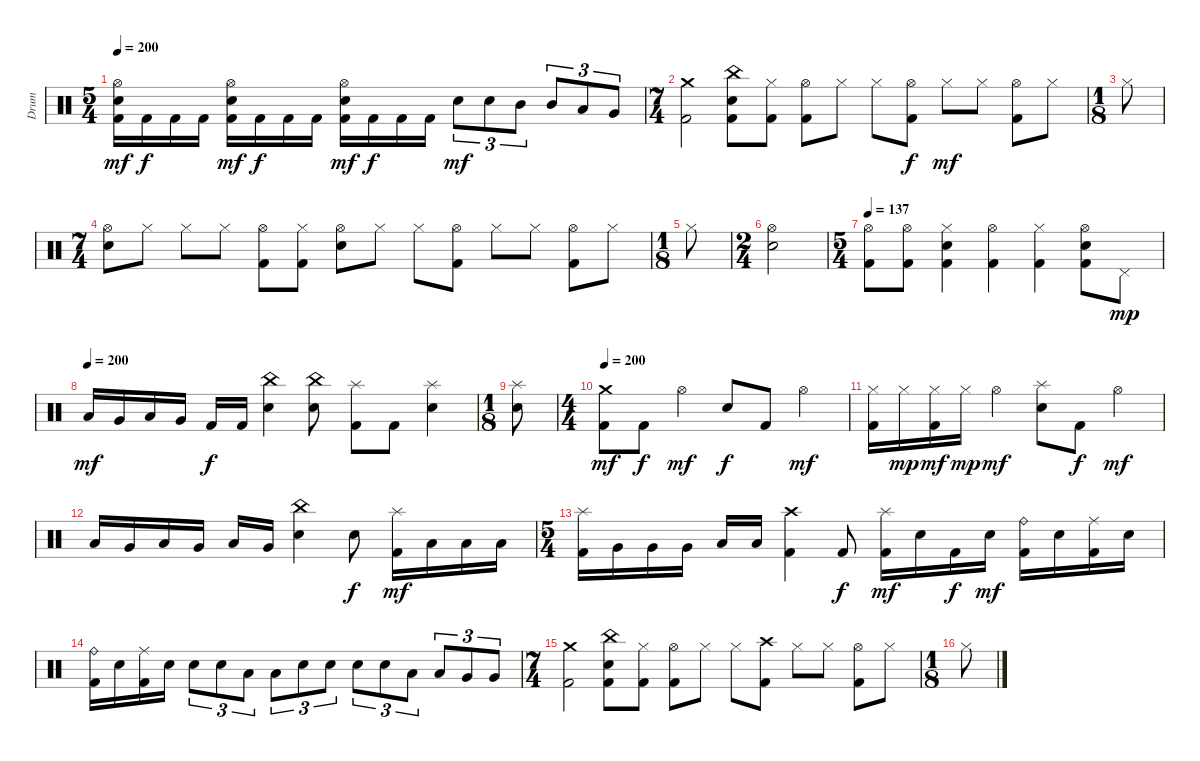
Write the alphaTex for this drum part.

\track ("Drum" "Drum") {instrument percussion}
\staff {score}
\articulation defaults
\ts (5 4)
\tempo 200
\clef neutral
\ks c
("Hi-Hat (open)" "Electric Snare (hit)" "Kick (hit) 2").16{dy mf} "Kick (hit) 2".16{dy f} "Kick (hit) 2".16 "Kick (hit) 2".16 ("Hi-Hat (open)" "Electric Snare (hit)" "Kick (hit) 2").16{dy mf} "Kick (hit) 2".16{dy f} "Kick (hit) 2".16 "Kick (hit) 2".16 ("Hi-Hat (open)" "Electric Snare (hit)" "Kick (hit) 2").16{dy mf} "Kick (hit) 2".16{dy f} "Kick (hit) 2".16 "Kick (hit) 2".16 "Electric Snare (hit)".8{tu (3 2) dy mf} "Electric Snare (hit)".8{tu (3 2)} "Mid Tom (hit)".8{tu (3 2)} "Mid Tom (hit)".8{tu (3 2)} "Low Tom (hit)".8{tu (3 2)} "Very Low Tom (hit)".8{tu (3 2)} |
\ts (7 4)
("Crash medium (hit)" "Kick (hit) 2").2 ("China (hit)" "Electric Snare (hit)" "Kick (hit) 2").8 ("Hi-Hat (closed)" "Kick (hit) 2").8 ("Hi-Hat (open)" "Kick (hit) 2").8 "Hi-Hat (closed)".8 "Hi-Hat (closed)".8 ("Hi-Hat (open)" "Kick (hit) 2").8{dy f} "Hi-Hat (closed)".8{dy mf} "Hi-Hat (closed)".8 ("Hi-Hat (open)" "Kick (hit) 2").8 "Hi-Hat (closed)".8 |
\ts (1 8)
"Hi-Hat (closed)".8 |
\ts (7 4)
("Hi-Hat (open)" "Electric Snare (hit)").8 "Hi-Hat (closed)".8 "Hi-Hat (closed)".8 "Hi-Hat (closed)".8 ("Hi-Hat (open)" "Kick (hit) 2").8 ("Hi-Hat (closed)" "Kick (hit) 2").8 ("Hi-Hat (open)" "Electric Snare (hit)").8 "Hi-Hat (closed)".8 "Hi-Hat (closed)".8 ("Hi-Hat (open)" "Kick (hit) 2").8 "Hi-Hat (closed)".8 "Hi-Hat (closed)".8 ("Hi-Hat (open)" "Kick (hit) 2").8 "Hi-Hat (closed)".8 |
\ts (1 8)
"Hi-Hat (closed)".8 |
\ts (2 4)
("Hi-Hat (open)" "Electric Snare (hit)").2 |
\ts (5 4)
\tempo 137
("Hi-Hat (open)" "Kick (hit) 2").8 ("Hi-Hat (open)" "Kick (hit) 2").8 ("Hi-Hat (closed)" "Electric Snare (hit)" "Kick (hit) 2").4 ("Hi-Hat (open)" "Kick (hit) 2").4 ("Hi-Hat (closed)" "Kick (hit) 2").4 ("Hi-Hat (open)" "Electric Snare (hit)" "Kick (hit) 2").8 "Pedal Hi-Hat (hit)".8{dy mp} |
\tempo (200)
"Low Tom (hit)".16{dy mf} "Very Low Tom (hit)".16 "Low Tom (hit)".16 "Very Low Tom (hit)".16 "Kick (hit) 2".16{dy f} "Kick (hit) 2".16 ("China (hit)" "Electric Snare (hit)").4 ("China (hit)" "Electric Snare (hit)").8 ("Splash (hit)" "Kick (hit) 2").8 "Kick (hit) 2".8 ("Splash (hit)" "Electric Snare (hit)").4 |
\ts (1 8)
("Splash (hit)" "Electric Snare (hit)").8 |
\ts (4 4)
\tempo 200
("Crash medium (hit)" "Kick (hit) 2").8{dy mf} "Kick (hit) 2".8{dy f} "Hi-Hat (open)".4{dy mf} "Electric Snare (hit)".8{dy f} "Kick (hit) 2".8 "Hi-Hat (open)".4{dy mf} |
("Hi-Hat (closed)" "Kick (hit) 2").16 "Hi-Hat (closed)".16{dy mp} ("Hi-Hat (closed)" "Kick (hit) 2").16{dy mf} "Hi-Hat (closed)".16{dy mp} "Hi-Hat (open)".4{dy mf} ("Splash (hit)" "Electric Snare (hit)").8 "Kick (hit) 2".8{dy f} "Hi-Hat (open)".4{dy mf} |
"Low Tom (hit)".16 "Very Low Tom (hit)".16 "Low Tom (hit)".16 "Very Low Tom (hit)".16 "Low Tom (hit)".16 "Very Low Tom (hit)".16 ("China (hit)" "Electric Snare (hit)").4 "Electric Snare (hit)".8{dy f} ("Splash (hit)" "Kick (hit) 2").16{dy mf} "Low Tom (hit)".16 "Low Tom (hit)".16 "Low Tom (hit)".16 |
\ts (5 4)
("Splash (hit)" "Kick (hit) 2").16 "Very Low Tom (hit)".16 "Very Low Tom (hit)".16 "Very Low Tom (hit)".16 "Low Floor Tom (hit)".16 "Low Floor Tom (hit)".16 ("Crash high (hit)" "Kick (hit) 2").4 "Kick (hit) 2".8{dy f} ("Splash (hit)" "Kick (hit) 2").16{dy mf} "Electric Snare (hit)".16 "Kick (hit) 2".16{dy f} "Electric Snare (hit)".16{dy mf} ("Ride (bell)" "Kick (hit) 2").16 "Electric Snare (hit)".16 ("Ride (middle)" "Kick (hit) 2").16 "Electric Snare (hit)".16 |
("Ride (bell)" "Kick (hit) 2").16 "Electric Snare (hit)".16 ("Ride (middle)" "Kick (hit) 2").16 "Electric Snare (hit)".16 "Electric Snare (hit)".8{tu (3 2)} "Electric Snare (hit)".8{tu (3 2)} "Low Tom (hit)".8{tu (3 2)} "Low Tom (hit)".8{tu (3 2)} "Electric Snare (hit)".8{tu (3 2)} "Electric Snare (hit)".8{tu (3 2)} "Electric Snare (hit)".8{tu (3 2)} "Electric Snare (hit)".8{tu (3 2)} "Low Tom (hit)".8{tu (3 2)} "Low Tom (hit)".8{tu (3 2)} "Very Low Tom (hit)".8{tu (3 2)} "Very Low Tom (hit)".8{tu (3 2)} |
\ts (7 4)
("Crash medium (hit)" "Kick (hit) 2").2 ("China (hit)" "Electric Snare (hit)" "Kick (hit) 2").8 ("Hi-Hat (closed)" "Kick (hit) 2").8 ("Hi-Hat (open)" "Kick (hit) 2").8 "Hi-Hat (closed)".8 "Hi-Hat (closed)".8 ("Crash high (hit)" "Kick (hit) 2").8 "Hi-Hat (closed)".8 "Hi-Hat (closed)".8 ("Hi-Hat (open)" "Kick (hit) 2").8 "Hi-Hat (closed)".8 |
\ts (1 8)
"Hi-Hat (closed)".8
